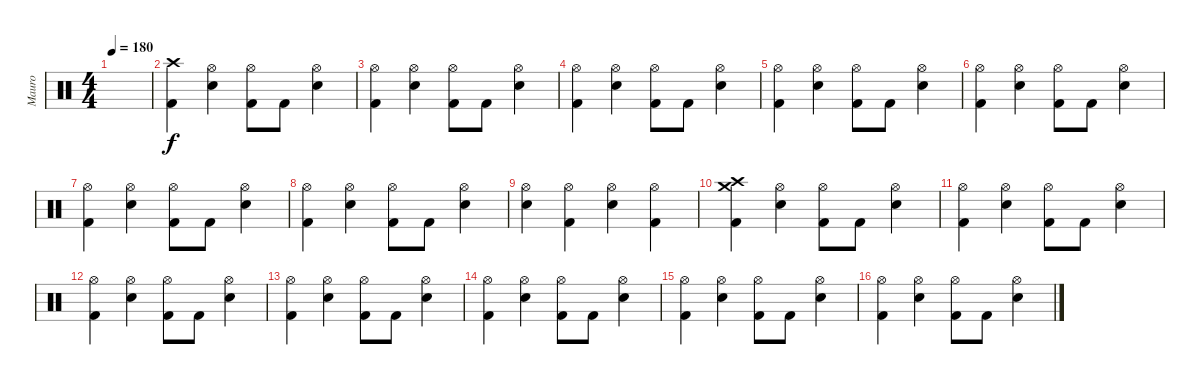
\track ("Mauro" "Mauro") {instrument percussion}
\staff {score}
\articulation defaults
\ts (4 4)
\tempo 180
\clef neutral
\ks c
|
("Crash high (hit)" "Kick (hit) 2").4 ("Hi-Hat (open)" "Snare (hit) 2").4 ("Hi-Hat (open)" "Kick (hit) 2").8 "Kick (hit) 2".8 ("Hi-Hat (open)" "Snare (hit) 2").4 |
("Hi-Hat (open)" "Kick (hit) 2").4 ("Hi-Hat (open)" "Snare (hit) 2").4 ("Hi-Hat (open)" "Kick (hit) 2").8 "Kick (hit) 2".8 ("Hi-Hat (open)" "Snare (hit) 2").4 |
("Hi-Hat (open)" "Kick (hit) 2").4 ("Hi-Hat (open)" "Snare (hit) 2").4 ("Hi-Hat (open)" "Kick (hit) 2").8 "Kick (hit) 2".8 ("Hi-Hat (open)" "Snare (hit) 2").4 |
("Hi-Hat (open)" "Kick (hit) 2").4 ("Hi-Hat (open)" "Snare (hit) 2").4 ("Hi-Hat (open)" "Kick (hit) 2").8 "Kick (hit) 2".8 ("Hi-Hat (open)" "Snare (hit) 2").4 |
("Hi-Hat (open)" "Kick (hit) 2").4 ("Hi-Hat (open)" "Snare (hit) 2").4 ("Hi-Hat (open)" "Kick (hit) 2").8 "Kick (hit) 2".8 ("Hi-Hat (open)" "Snare (hit) 2").4 |
("Hi-Hat (open)" "Kick (hit) 2").4 ("Hi-Hat (open)" "Snare (hit) 2").4 ("Hi-Hat (open)" "Kick (hit) 2").8 "Kick (hit) 2".8 ("Hi-Hat (open)" "Snare (hit) 2").4 |
("Hi-Hat (open)" "Kick (hit) 2").4 ("Hi-Hat (open)" "Snare (hit) 2").4 ("Hi-Hat (open)" "Kick (hit) 2").8 "Kick (hit) 2".8 ("Hi-Hat (open)" "Snare (hit) 2").4 |
("Hi-Hat (open)" "Snare (hit) 2").4 ("Hi-Hat (open)" "Kick (hit) 2").4 ("Hi-Hat (open)" "Snare (hit) 2").4 ("Hi-Hat (open)" "Kick (hit) 2").4 |
("Crash high (hit)" "Kick (hit) 2" "Crash medium (hit)").4 ("Hi-Hat (open)" "Snare (hit) 2").4 ("Hi-Hat (open)" "Kick (hit) 2").8 "Kick (hit) 2".8 ("Hi-Hat (open)" "Snare (hit) 2").4 |
("Hi-Hat (open)" "Kick (hit) 2").4 ("Hi-Hat (open)" "Snare (hit) 2").4 ("Hi-Hat (open)" "Kick (hit) 2").8 "Kick (hit) 2".8 ("Hi-Hat (open)" "Snare (hit) 2").4 |
("Hi-Hat (open)" "Kick (hit) 2").4 ("Hi-Hat (open)" "Snare (hit) 2").4 ("Hi-Hat (open)" "Kick (hit) 2").8 "Kick (hit) 2".8 ("Hi-Hat (open)" "Snare (hit) 2").4 |
("Hi-Hat (open)" "Kick (hit) 2").4 ("Hi-Hat (open)" "Snare (hit) 2").4 ("Hi-Hat (open)" "Kick (hit) 2").8 "Kick (hit) 2".8 ("Hi-Hat (open)" "Snare (hit) 2").4 |
("Hi-Hat (open)" "Kick (hit) 2").4 ("Hi-Hat (open)" "Snare (hit) 2").4 ("Hi-Hat (open)" "Kick (hit) 2").8 "Kick (hit) 2".8 ("Hi-Hat (open)" "Snare (hit) 2").4 |
("Hi-Hat (open)" "Kick (hit) 2").4 ("Hi-Hat (open)" "Snare (hit) 2").4 ("Hi-Hat (open)" "Kick (hit) 2").8 "Kick (hit) 2".8 ("Hi-Hat (open)" "Snare (hit) 2").4 |
("Hi-Hat (open)" "Kick (hit) 2").4 ("Hi-Hat (open)" "Snare (hit) 2").4 ("Hi-Hat (open)" "Kick (hit) 2").8 "Kick (hit) 2".8 ("Hi-Hat (open)" "Snare (hit) 2").4
